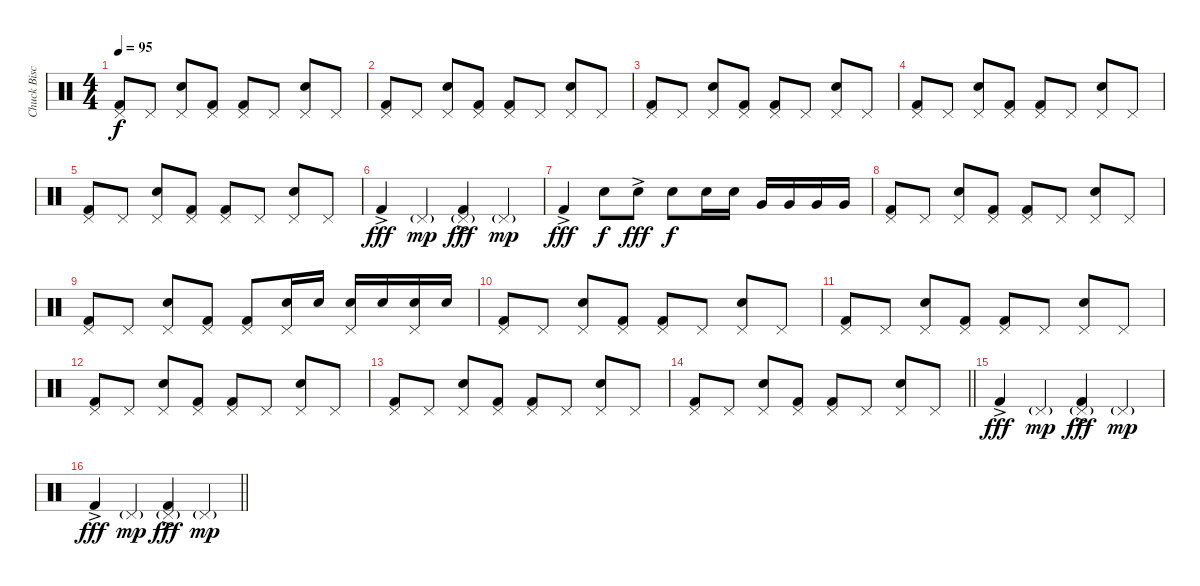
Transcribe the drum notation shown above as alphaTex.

\track ("Chuck Biscuits" "Chuck Bisc") {instrument percussion}
\staff {score}
\articulation defaults
\ts (4 4)
\tempo 95
\clef neutral
\ks c
("Pedal Hi-Hat (hit)" "Kick (hit) 2").8{dy f} "Pedal Hi-Hat (hit)".8 ("Pedal Hi-Hat (hit)" "Electric Snare (hit)").8 ("Pedal Hi-Hat (hit)" "Kick (hit) 2").8 ("Pedal Hi-Hat (hit)" "Kick (hit) 2").8 "Pedal Hi-Hat (hit)".8 ("Pedal Hi-Hat (hit)" "Electric Snare (hit)").8 "Pedal Hi-Hat (hit)".8 |
("Pedal Hi-Hat (hit)" "Kick (hit) 2").8 "Pedal Hi-Hat (hit)".8 ("Pedal Hi-Hat (hit)" "Electric Snare (hit)").8 ("Pedal Hi-Hat (hit)" "Kick (hit) 2").8 ("Pedal Hi-Hat (hit)" "Kick (hit) 2").8 "Pedal Hi-Hat (hit)".8 ("Pedal Hi-Hat (hit)" "Electric Snare (hit)").8 "Pedal Hi-Hat (hit)".8 |
("Pedal Hi-Hat (hit)" "Kick (hit) 2").8 "Pedal Hi-Hat (hit)".8 ("Pedal Hi-Hat (hit)" "Electric Snare (hit)").8 ("Pedal Hi-Hat (hit)" "Kick (hit) 2").8 ("Pedal Hi-Hat (hit)" "Kick (hit) 2").8 "Pedal Hi-Hat (hit)".8 ("Pedal Hi-Hat (hit)" "Electric Snare (hit)").8 "Pedal Hi-Hat (hit)".8 |
("Pedal Hi-Hat (hit)" "Kick (hit) 2").8 "Pedal Hi-Hat (hit)".8 ("Pedal Hi-Hat (hit)" "Electric Snare (hit)").8 ("Pedal Hi-Hat (hit)" "Kick (hit) 2").8 ("Pedal Hi-Hat (hit)" "Kick (hit) 2").8 "Pedal Hi-Hat (hit)".8 ("Pedal Hi-Hat (hit)" "Electric Snare (hit)").8 "Pedal Hi-Hat (hit)".8 |
("Pedal Hi-Hat (hit)" "Kick (hit) 2").8 "Pedal Hi-Hat (hit)".8 ("Pedal Hi-Hat (hit)" "Electric Snare (hit)").8 ("Pedal Hi-Hat (hit)" "Kick (hit) 2").8 ("Pedal Hi-Hat (hit)" "Kick (hit) 2").8 "Pedal Hi-Hat (hit)".8 ("Pedal Hi-Hat (hit)" "Electric Snare (hit)").8 "Pedal Hi-Hat (hit)".8 |
"Kick (hit) 2"{ac}.4{dy fff} "Pedal Hi-Hat (hit)"{g}.4{dy mp} ("Pedal Hi-Hat (hit)"{g} "Kick (hit) 2"{ac}).4{dy fff} "Pedal Hi-Hat (hit)"{g}.4{dy mp} |
"Kick (hit) 2"{ac}.4{dy fff} "Snare (hit) 2".8{dy f} "Snare (hit) 2"{ac}.8{dy fff} "Electric Snare (hit)".8{dy f} "Snare (hit) 2".16 "Snare (hit) 2".16 "Very Low Tom (hit)".16 "Very Low Tom (hit)".16 "Very Low Tom (hit)".16 "Very Low Tom (hit)".16 |
("Pedal Hi-Hat (hit)" "Kick (hit) 2").8 "Pedal Hi-Hat (hit)".8 ("Pedal Hi-Hat (hit)" "Electric Snare (hit)").8 ("Pedal Hi-Hat (hit)" "Kick (hit) 2").8 ("Pedal Hi-Hat (hit)" "Kick (hit) 2").8 "Pedal Hi-Hat (hit)".8 ("Pedal Hi-Hat (hit)" "Electric Snare (hit)").8 "Pedal Hi-Hat (hit)".8 |
("Pedal Hi-Hat (hit)" "Kick (hit) 2").8 "Pedal Hi-Hat (hit)".8 ("Pedal Hi-Hat (hit)" "Electric Snare (hit)").8 ("Pedal Hi-Hat (hit)" "Kick (hit) 2").8 ("Pedal Hi-Hat (hit)" "Kick (hit) 2").8 ("Pedal Hi-Hat (hit)" "Electric Snare (hit)").16 "Electric Snare (hit)".16 ("Pedal Hi-Hat (hit)" "Electric Snare (hit)").16 "Electric Snare (hit)".16 ("Pedal Hi-Hat (hit)" "Electric Snare (hit)").16 "Electric Snare (hit)".16 |
("Pedal Hi-Hat (hit)" "Kick (hit) 2").8 "Pedal Hi-Hat (hit)".8 ("Pedal Hi-Hat (hit)" "Electric Snare (hit)").8 ("Pedal Hi-Hat (hit)" "Kick (hit) 2").8 ("Pedal Hi-Hat (hit)" "Kick (hit) 2").8 "Pedal Hi-Hat (hit)".8 ("Pedal Hi-Hat (hit)" "Electric Snare (hit)").8 "Pedal Hi-Hat (hit)".8 |
("Pedal Hi-Hat (hit)" "Kick (hit) 2").8 "Pedal Hi-Hat (hit)".8 ("Pedal Hi-Hat (hit)" "Electric Snare (hit)").8 ("Pedal Hi-Hat (hit)" "Kick (hit) 2").8 ("Pedal Hi-Hat (hit)" "Kick (hit) 2").8 "Pedal Hi-Hat (hit)".8 ("Pedal Hi-Hat (hit)" "Electric Snare (hit)").8 "Pedal Hi-Hat (hit)".8 |
("Pedal Hi-Hat (hit)" "Kick (hit) 2").8 "Pedal Hi-Hat (hit)".8 ("Pedal Hi-Hat (hit)" "Electric Snare (hit)").8 ("Pedal Hi-Hat (hit)" "Kick (hit) 2").8 ("Pedal Hi-Hat (hit)" "Kick (hit) 2").8 "Pedal Hi-Hat (hit)".8 ("Pedal Hi-Hat (hit)" "Electric Snare (hit)").8 "Pedal Hi-Hat (hit)".8 |
("Pedal Hi-Hat (hit)" "Kick (hit) 2").8 "Pedal Hi-Hat (hit)".8 ("Pedal Hi-Hat (hit)" "Electric Snare (hit)").8 ("Pedal Hi-Hat (hit)" "Kick (hit) 2").8 ("Pedal Hi-Hat (hit)" "Kick (hit) 2").8 "Pedal Hi-Hat (hit)".8 ("Pedal Hi-Hat (hit)" "Electric Snare (hit)").8 "Pedal Hi-Hat (hit)".8 |
\barLineRight lightlight
("Pedal Hi-Hat (hit)" "Kick (hit) 2").8 "Pedal Hi-Hat (hit)".8 ("Pedal Hi-Hat (hit)" "Electric Snare (hit)").8 ("Pedal Hi-Hat (hit)" "Kick (hit) 2").8 ("Pedal Hi-Hat (hit)" "Kick (hit) 2").8 "Pedal Hi-Hat (hit)".8 ("Pedal Hi-Hat (hit)" "Electric Snare (hit)").8 "Pedal Hi-Hat (hit)".8 |
"Kick (hit) 2"{ac}.4{dy fff} "Pedal Hi-Hat (hit)"{g}.4{dy mp} ("Pedal Hi-Hat (hit)"{g} "Kick (hit) 2"{ac}).4{dy fff} "Pedal Hi-Hat (hit)"{g}.4{dy mp} |
\barLineRight lightlight "Kick (hit) 2"{ac}.4{dy fff} "Pedal Hi-Hat (hit)"{g}.4{dy mp}
("Pedal Hi-Hat (hit)"{g} "Kick (hit) 2"{ac}).4{dy fff} "Pedal Hi-Hat (hit)"{g}.4{dy mp}
